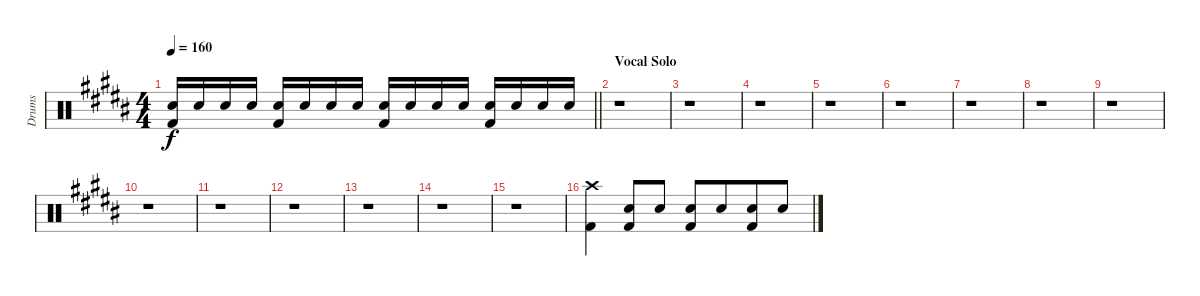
\track ("Drums" "Drums") {instrument percussion}
\staff {score}
\articulation defaults
\ts (4 4)
\tempo 160
\clef neutral
\barLineRight lightlight
\ks b
("Snare (hit) 2" "Kick (hit) 2").16{dy f} "Snare (hit) 2".16 "Snare (hit) 2".16 "Snare (hit) 2".16 ("Snare (hit) 2" "Kick (hit) 2").16 "Snare (hit) 2".16 "Snare (hit) 2".16 "Snare (hit) 2".16 ("Snare (hit) 2" "Kick (hit) 2").16 "Snare (hit) 2".16 "Snare (hit) 2".16 "Snare (hit) 2".16 ("Snare (hit) 2" "Kick (hit) 2").16 "Snare (hit) 2".16 "Snare (hit) 2".16 "Snare (hit) 2".16 |
\section ("" "Vocal Solo")
r.1 |
r.1 |
r.1 |
r.1 |
r.1 |
r.1 |
r.1 |
r.1 |
r.1 |
r.1 |
r.1 |
r.1 |
r.1 |
r.1 |
("Kick (hit) 2" "Crash high (hit)").4 ("Snare (hit) 2" "Kick (hit) 2").8 "Snare (hit) 2".8 ("Snare (hit) 2" "Kick (hit) 2").8 "Snare (hit) 2".8{beam merge} ("Snare (hit) 2" "Kick (hit) 2").8 "Snare (hit) 2".8
